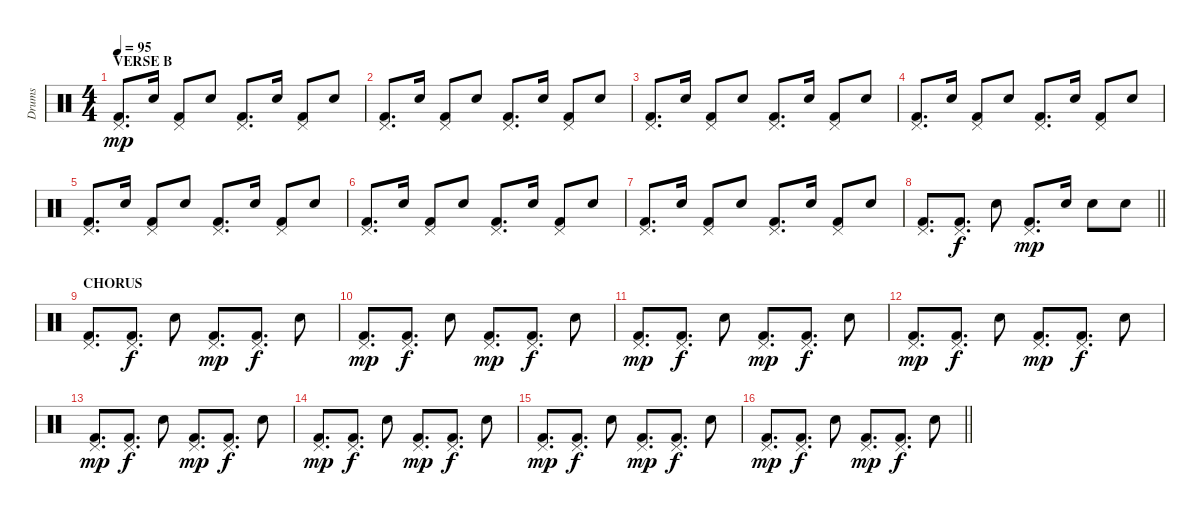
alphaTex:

\track ("Drums" "Drums") {instrument percussion}
\staff {score}
\articulation defaults
\ts (4 4)
\section ("" "VERSE B")
\tempo 95
\clef neutral
\ks c
("Pedal Hi-Hat (hit)" "Kick (hit) 2").8{d dy mp} "Snare (hit) 2".16 ("Pedal Hi-Hat (hit)" "Kick (hit) 2").8 "Snare (hit) 2".8 ("Pedal Hi-Hat (hit)" "Kick (hit) 2").8{d} "Snare (hit) 2".16 ("Pedal Hi-Hat (hit)" "Kick (hit) 2").8 "Snare (hit) 2".8 |
("Pedal Hi-Hat (hit)" "Kick (hit) 2").8{d} "Snare (hit) 2".16 ("Pedal Hi-Hat (hit)" "Kick (hit) 2").8 "Snare (hit) 2".8 ("Pedal Hi-Hat (hit)" "Kick (hit) 2").8{d} "Snare (hit) 2".16 ("Pedal Hi-Hat (hit)" "Kick (hit) 2").8 "Snare (hit) 2".8 |
("Pedal Hi-Hat (hit)" "Kick (hit) 2").8{d} "Snare (hit) 2".16 ("Pedal Hi-Hat (hit)" "Kick (hit) 2").8 "Snare (hit) 2".8 ("Pedal Hi-Hat (hit)" "Kick (hit) 2").8{d} "Snare (hit) 2".16 ("Pedal Hi-Hat (hit)" "Kick (hit) 2").8 "Snare (hit) 2".8 |
("Pedal Hi-Hat (hit)" "Kick (hit) 2").8{d} "Snare (hit) 2".16 ("Pedal Hi-Hat (hit)" "Kick (hit) 2").8 "Snare (hit) 2".8 ("Pedal Hi-Hat (hit)" "Kick (hit) 2").8{d} "Snare (hit) 2".16 ("Pedal Hi-Hat (hit)" "Kick (hit) 2").8 "Snare (hit) 2".8 |
("Pedal Hi-Hat (hit)" "Kick (hit) 2").8{d} "Snare (hit) 2".16 ("Pedal Hi-Hat (hit)" "Kick (hit) 2").8 "Snare (hit) 2".8 ("Pedal Hi-Hat (hit)" "Kick (hit) 2").8{d} "Snare (hit) 2".16 ("Pedal Hi-Hat (hit)" "Kick (hit) 2").8 "Snare (hit) 2".8 |
("Pedal Hi-Hat (hit)" "Kick (hit) 2").8{d} "Snare (hit) 2".16 ("Pedal Hi-Hat (hit)" "Kick (hit) 2").8 "Snare (hit) 2".8 ("Pedal Hi-Hat (hit)" "Kick (hit) 2").8{d} "Snare (hit) 2".16 ("Pedal Hi-Hat (hit)" "Kick (hit) 2").8 "Snare (hit) 2".8 |
("Pedal Hi-Hat (hit)" "Kick (hit) 2").8{d} "Snare (hit) 2".16 ("Pedal Hi-Hat (hit)" "Kick (hit) 2").8 "Snare (hit) 2".8 ("Pedal Hi-Hat (hit)" "Kick (hit) 2").8{d} "Snare (hit) 2".16 ("Pedal Hi-Hat (hit)" "Kick (hit) 2").8 "Snare (hit) 2".8 |
\barLineRight lightlight
("Pedal Hi-Hat (hit)" "Kick (hit) 2").8{d} ("Pedal Hi-Hat (hit)" "Kick (hit) 2").8{d dy f} "Snare (hit) 2".8 ("Pedal Hi-Hat (hit)" "Kick (hit) 2").8{d dy mp} "Snare (hit) 2".16 "Snare (hit) 2".8 "Snare (hit) 2".8 |
\section ("" "CHORUS")
("Pedal Hi-Hat (hit)" "Kick (hit) 2").8{d} ("Pedal Hi-Hat (hit)" "Kick (hit) 2").8{d dy f} "Snare (hit) 2".8 ("Pedal Hi-Hat (hit)" "Kick (hit) 2").8{d dy mp} ("Pedal Hi-Hat (hit)" "Kick (hit) 2").8{d dy f} "Snare (hit) 2".8 |
("Pedal Hi-Hat (hit)" "Kick (hit) 2").8{d dy mp} ("Pedal Hi-Hat (hit)" "Kick (hit) 2").8{d dy f} "Snare (hit) 2".8 ("Pedal Hi-Hat (hit)" "Kick (hit) 2").8{d dy mp} ("Pedal Hi-Hat (hit)" "Kick (hit) 2").8{d dy f} "Snare (hit) 2".8 |
("Pedal Hi-Hat (hit)" "Kick (hit) 2").8{d dy mp} ("Pedal Hi-Hat (hit)" "Kick (hit) 2").8{d dy f} "Snare (hit) 2".8 ("Pedal Hi-Hat (hit)" "Kick (hit) 2").8{d dy mp} ("Pedal Hi-Hat (hit)" "Kick (hit) 2").8{d dy f} "Snare (hit) 2".8 |
("Pedal Hi-Hat (hit)" "Kick (hit) 2").8{d dy mp} ("Pedal Hi-Hat (hit)" "Kick (hit) 2").8{d dy f} "Snare (hit) 2".8 ("Pedal Hi-Hat (hit)" "Kick (hit) 2").8{d dy mp} ("Pedal Hi-Hat (hit)" "Kick (hit) 2").8{d dy f} "Snare (hit) 2".8 |
("Pedal Hi-Hat (hit)" "Kick (hit) 2").8{d dy mp} ("Pedal Hi-Hat (hit)" "Kick (hit) 2").8{d dy f} "Snare (hit) 2".8 ("Pedal Hi-Hat (hit)" "Kick (hit) 2").8{d dy mp} ("Pedal Hi-Hat (hit)" "Kick (hit) 2").8{d dy f} "Snare (hit) 2".8 |
("Pedal Hi-Hat (hit)" "Kick (hit) 2").8{d dy mp} ("Pedal Hi-Hat (hit)" "Kick (hit) 2").8{d dy f} "Snare (hit) 2".8 ("Pedal Hi-Hat (hit)" "Kick (hit) 2").8{d dy mp} ("Pedal Hi-Hat (hit)" "Kick (hit) 2").8{d dy f} "Snare (hit) 2".8 |
("Pedal Hi-Hat (hit)" "Kick (hit) 2").8{d dy mp} ("Pedal Hi-Hat (hit)" "Kick (hit) 2").8{d dy f} "Snare (hit) 2".8 ("Pedal Hi-Hat (hit)" "Kick (hit) 2").8{d dy mp} ("Pedal Hi-Hat (hit)" "Kick (hit) 2").8{d dy f} "Snare (hit) 2".8 |
\barLineRight lightlight
("Pedal Hi-Hat (hit)" "Kick (hit) 2").8{d dy mp} ("Pedal Hi-Hat (hit)" "Kick (hit) 2").8{d dy f} "Snare (hit) 2".8 ("Pedal Hi-Hat (hit)" "Kick (hit) 2").8{d dy mp} ("Pedal Hi-Hat (hit)" "Kick (hit) 2").8{d dy f} "Snare (hit) 2".8
